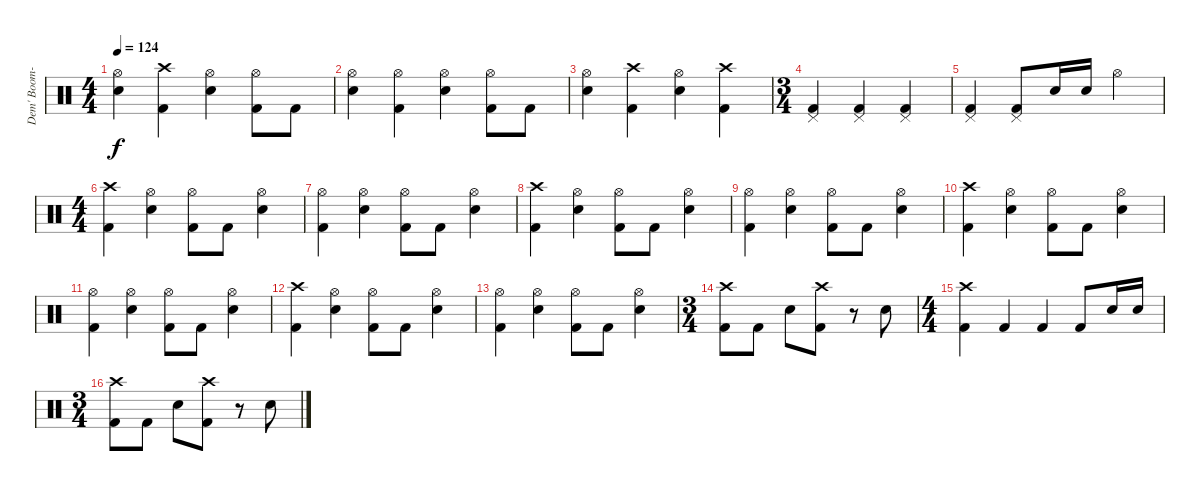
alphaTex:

\track ("Dem' Boom-Booms" "Dem' Boom-") {instrument percussion}
\staff {score}
\articulation defaults
\ts (4 4)
\tempo 124
\clef neutral
\ks c
("Hi-Hat (open)" "Electric Snare (hit)").4{dy f} ("Crash high (hit)" "Kick (hit) 2").4 ("Hi-Hat (open)" "Electric Snare (hit)").4 ("Hi-Hat (open)" "Kick (hit) 2").8 "Kick (hit) 2".8 |
("Hi-Hat (open)" "Electric Snare (hit)").4 ("Hi-Hat (open)" "Kick (hit) 2").4 ("Hi-Hat (open)" "Electric Snare (hit)").4 ("Hi-Hat (open)" "Kick (hit) 2").8 "Kick (hit) 2".8 |
("Hi-Hat (open)" "Electric Snare (hit)").4 ("Crash high (hit)" "Kick (hit) 2").4 ("Hi-Hat (open)" "Electric Snare (hit)").4 ("Crash high (hit)" "Kick (hit) 2").4 |
\ts (3 4)
("Pedal Hi-Hat (hit)" "Kick (hit) 2").4 ("Pedal Hi-Hat (hit)" "Kick (hit) 2").4 ("Pedal Hi-Hat (hit)" "Kick (hit) 2").4 |
("Pedal Hi-Hat (hit)" "Kick (hit) 2").4 ("Pedal Hi-Hat (hit)" "Kick (hit) 2").8 "Electric Snare (hit)".16 "Electric Snare (hit)".16 "Hi-Hat (open)".4 |
\ts (4 4)
("Crash high (hit)" "Kick (hit) 2").4 ("Hi-Hat (open)" "Electric Snare (hit)").4 ("Hi-Hat (open)" "Kick (hit) 2").8 "Kick (hit) 2".8 ("Hi-Hat (open)" "Electric Snare (hit)").4 |
("Hi-Hat (open)" "Kick (hit) 2").4 ("Hi-Hat (open)" "Electric Snare (hit)").4 ("Hi-Hat (open)" "Kick (hit) 2").8 "Kick (hit) 2".8 ("Hi-Hat (open)" "Electric Snare (hit)").4 |
("Crash high (hit)" "Kick (hit) 2").4 ("Hi-Hat (open)" "Electric Snare (hit)").4 ("Hi-Hat (open)" "Kick (hit) 2").8 "Kick (hit) 2".8 ("Hi-Hat (open)" "Electric Snare (hit)").4 |
("Hi-Hat (open)" "Kick (hit) 2").4 ("Hi-Hat (open)" "Electric Snare (hit)").4 ("Hi-Hat (open)" "Kick (hit) 2").8 "Kick (hit) 2".8 ("Hi-Hat (open)" "Electric Snare (hit)").4 |
("Crash high (hit)" "Kick (hit) 2").4 ("Hi-Hat (open)" "Electric Snare (hit)").4 ("Hi-Hat (open)" "Kick (hit) 2").8 "Kick (hit) 2".8 ("Hi-Hat (open)" "Electric Snare (hit)").4 |
("Hi-Hat (open)" "Kick (hit) 2").4 ("Hi-Hat (open)" "Electric Snare (hit)").4 ("Hi-Hat (open)" "Kick (hit) 2").8 "Kick (hit) 2".8 ("Hi-Hat (open)" "Electric Snare (hit)").4 |
("Crash high (hit)" "Kick (hit) 2").4 ("Hi-Hat (open)" "Electric Snare (hit)").4 ("Hi-Hat (open)" "Kick (hit) 2").8 "Kick (hit) 2".8 ("Hi-Hat (open)" "Electric Snare (hit)").4 |
("Hi-Hat (open)" "Kick (hit) 2").4 ("Hi-Hat (open)" "Electric Snare (hit)").4 ("Hi-Hat (open)" "Kick (hit) 2").8 "Kick (hit) 2".8 ("Hi-Hat (open)" "Electric Snare (hit)").4 |
\ts (3 4)
("Crash high (hit)" "Kick (hit) 2").8 "Kick (hit) 2".8 "Electric Snare (hit)".8 ("Crash high (hit)" "Kick (hit) 2").8 r.8 "Electric Snare (hit)".8 |
\ts (4 4)
("Crash high (hit)" "Kick (hit) 2").4 "Kick (hit) 2".4 "Kick (hit) 2".4 "Kick (hit) 2".8 "Electric Snare (hit)".16 "Electric Snare (hit)".16 |
\ts (3 4)
("Crash high (hit)" "Kick (hit) 2").8 "Kick (hit) 2".8 "Electric Snare (hit)".8 ("Crash high (hit)" "Kick (hit) 2").8 r.8 "Electric Snare (hit)".8
